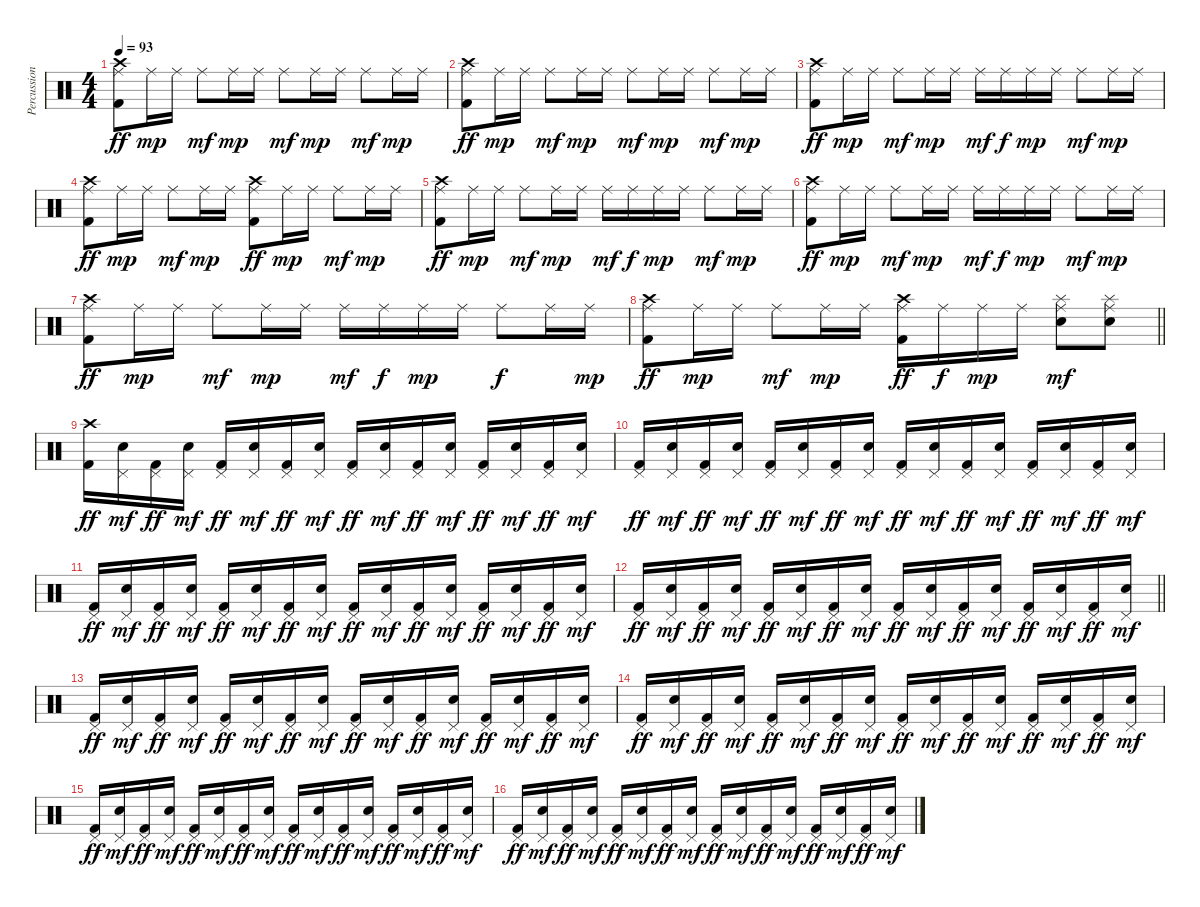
\track ("Percussion" "Percussion") {instrument percussion}
\staff {score}
\articulation defaults
\ts (4 4)
\tempo 93
\clef neutral
\ks c
("Crash high (hit)" "Ride (middle)" "Kick (hit) 2").8{dy ff} "Ride (middle)".16{dy mp} "Ride (middle)".16 "Ride (middle)".8{dy mf} "Ride (middle)".16{dy mp} "Ride (middle)".16 "Ride (middle)".8{dy mf} "Ride (middle)".16{dy mp} "Ride (middle)".16 "Ride (middle)".8{dy mf} "Ride (middle)".16{dy mp} "Ride (middle)".16 |
("Crash high (hit)" "Ride (middle)" "Kick (hit) 2").8{dy ff} "Ride (middle)".16{dy mp} "Ride (middle)".16 "Ride (middle)".8{dy mf} "Ride (middle)".16{dy mp} "Ride (middle)".16 "Ride (middle)".8{dy mf} "Ride (middle)".16{dy mp} "Ride (middle)".16 "Ride (middle)".8{dy mf} "Ride (middle)".16{dy mp} "Ride (middle)".16 |
("Crash high (hit)" "Ride (middle)" "Kick (hit) 2").8{dy ff} "Ride (middle)".16{dy mp} "Ride (middle)".16 "Ride (middle)".8{dy mf} "Ride (middle)".16{dy mp} "Ride (middle)".16 "Ride (middle)".16{dy mf} "Ride (middle)".16{dy f} "Ride (middle)".16{dy mp} "Ride (middle)".16 "Ride (middle)".8{dy mf} "Ride (middle)".16{dy mp} "Ride (middle)".16 |
("Crash high (hit)" "Ride (middle)" "Kick (hit) 2").8{dy ff} "Ride (middle)".16{dy mp} "Ride (middle)".16 "Ride (middle)".8{dy mf} "Ride (middle)".16{dy mp} "Ride (middle)".16 ("Crash high (hit)" "Ride (middle)" "Kick (hit) 2").8{dy ff} "Ride (middle)".16{dy mp} "Ride (middle)".16 "Ride (middle)".8{dy mf} "Ride (middle)".16{dy mp} "Ride (middle)".16 |
("Crash high (hit)" "Ride (middle)" "Kick (hit) 2").8{dy ff} "Ride (middle)".16{dy mp} "Ride (middle)".16 "Ride (middle)".8{dy mf} "Ride (middle)".16{dy mp} "Ride (middle)".16 "Ride (middle)".16{dy mf} "Ride (middle)".16{dy f} "Ride (middle)".16{dy mp} "Ride (middle)".16 "Ride (middle)".8{dy mf} "Ride (middle)".16{dy mp} "Ride (middle)".16 |
("Crash high (hit)" "Ride (middle)" "Kick (hit) 2").8{dy ff} "Ride (middle)".16{dy mp} "Ride (middle)".16 "Ride (middle)".8{dy mf} "Ride (middle)".16{dy mp} "Ride (middle)".16 "Ride (middle)".16{dy mf} "Ride (middle)".16{dy f} "Ride (middle)".16{dy mp} "Ride (middle)".16 "Ride (middle)".8{dy mf} "Ride (middle)".16{dy mp} "Ride (middle)".16 |
("Crash high (hit)" "Ride (middle)" "Kick (hit) 2").8{dy ff} "Ride (middle)".16{dy mp} "Ride (middle)".16 "Ride (middle)".8{dy mf} "Ride (middle)".16{dy mp} "Ride (middle)".16 "Ride (middle)".16{dy mf} "Ride (middle)".16{dy f} "Ride (middle)".16{dy mp} "Ride (middle)".16 "Ride (middle)".8{dy f} "Ride (middle)".16 "Ride (middle)".16{dy mp} |
\barLineRight lightlight
("Crash high (hit)" "Ride (middle)" "Kick (hit) 2").8{dy ff} "Ride (middle)".16{dy mp} "Ride (middle)".16 "Ride (middle)".8{dy mf} "Ride (middle)".16{dy mp} "Ride (middle)".16 ("Crash high (hit)" "Ride (middle)" "Kick (hit) 2").16{dy ff} "Ride (middle)".16{dy f} "Ride (middle)".16{dy mp} "Ride (middle)".16 ("Splash (hit)" "Ride (middle)" "Electric Snare (hit)").8{dy mf} ("Splash (hit)" "Ride (middle)" "Electric Snare (hit)").8 |
("Crash high (hit)" "Kick (hit) 2").16{dy ff} ("Pedal Hi-Hat (hit)" "Electric Snare (hit)").16{dy mf} ("Pedal Hi-Hat (hit)" "Kick (hit) 2").16{dy ff} ("Pedal Hi-Hat (hit)" "Electric Snare (hit)").16{dy mf} ("Pedal Hi-Hat (hit)" "Kick (hit) 2").16{dy ff} ("Pedal Hi-Hat (hit)" "Electric Snare (hit)").16{dy mf} ("Pedal Hi-Hat (hit)" "Kick (hit) 2").16{dy ff} ("Pedal Hi-Hat (hit)" "Electric Snare (hit)").16{dy mf} ("Pedal Hi-Hat (hit)" "Kick (hit) 2").16{dy ff} ("Pedal Hi-Hat (hit)" "Electric Snare (hit)").16{dy mf} ("Pedal Hi-Hat (hit)" "Kick (hit) 2").16{dy ff} ("Pedal Hi-Hat (hit)" "Electric Snare (hit)").16{dy mf} ("Pedal Hi-Hat (hit)" "Kick (hit) 2").16{dy ff} ("Pedal Hi-Hat (hit)" "Electric Snare (hit)").16{dy mf} ("Pedal Hi-Hat (hit)" "Kick (hit) 2").16{dy ff} ("Pedal Hi-Hat (hit)" "Electric Snare (hit)").16{dy mf} |
("Pedal Hi-Hat (hit)" "Kick (hit) 2").16{dy ff} ("Pedal Hi-Hat (hit)" "Electric Snare (hit)").16{dy mf} ("Pedal Hi-Hat (hit)" "Kick (hit) 2").16{dy ff} ("Pedal Hi-Hat (hit)" "Electric Snare (hit)").16{dy mf} ("Pedal Hi-Hat (hit)" "Kick (hit) 2").16{dy ff} ("Pedal Hi-Hat (hit)" "Electric Snare (hit)").16{dy mf} ("Pedal Hi-Hat (hit)" "Kick (hit) 2").16{dy ff} ("Pedal Hi-Hat (hit)" "Electric Snare (hit)").16{dy mf} ("Pedal Hi-Hat (hit)" "Kick (hit) 2").16{dy ff} ("Pedal Hi-Hat (hit)" "Electric Snare (hit)").16{dy mf} ("Pedal Hi-Hat (hit)" "Kick (hit) 2").16{dy ff} ("Pedal Hi-Hat (hit)" "Electric Snare (hit)").16{dy mf} ("Pedal Hi-Hat (hit)" "Kick (hit) 2").16{dy ff} ("Pedal Hi-Hat (hit)" "Electric Snare (hit)").16{dy mf} ("Pedal Hi-Hat (hit)" "Kick (hit) 2").16{dy ff} ("Pedal Hi-Hat (hit)" "Electric Snare (hit)").16{dy mf} |
("Pedal Hi-Hat (hit)" "Kick (hit) 2").16{dy ff} ("Pedal Hi-Hat (hit)" "Electric Snare (hit)").16{dy mf} ("Pedal Hi-Hat (hit)" "Kick (hit) 2").16{dy ff} ("Pedal Hi-Hat (hit)" "Electric Snare (hit)").16{dy mf} ("Pedal Hi-Hat (hit)" "Kick (hit) 2").16{dy ff} ("Pedal Hi-Hat (hit)" "Electric Snare (hit)").16{dy mf} ("Pedal Hi-Hat (hit)" "Kick (hit) 2").16{dy ff} ("Pedal Hi-Hat (hit)" "Electric Snare (hit)").16{dy mf} ("Pedal Hi-Hat (hit)" "Kick (hit) 2").16{dy ff} ("Pedal Hi-Hat (hit)" "Electric Snare (hit)").16{dy mf} ("Pedal Hi-Hat (hit)" "Kick (hit) 2").16{dy ff} ("Pedal Hi-Hat (hit)" "Electric Snare (hit)").16{dy mf} ("Pedal Hi-Hat (hit)" "Kick (hit) 2").16{dy ff} ("Pedal Hi-Hat (hit)" "Electric Snare (hit)").16{dy mf} ("Pedal Hi-Hat (hit)" "Kick (hit) 2").16{dy ff} ("Pedal Hi-Hat (hit)" "Electric Snare (hit)").16{dy mf} |
\barLineRight lightlight
("Pedal Hi-Hat (hit)" "Kick (hit) 2").16{dy ff} ("Pedal Hi-Hat (hit)" "Electric Snare (hit)").16{dy mf} ("Pedal Hi-Hat (hit)" "Kick (hit) 2").16{dy ff} ("Pedal Hi-Hat (hit)" "Electric Snare (hit)").16{dy mf} ("Pedal Hi-Hat (hit)" "Kick (hit) 2").16{dy ff} ("Pedal Hi-Hat (hit)" "Electric Snare (hit)").16{dy mf} ("Pedal Hi-Hat (hit)" "Kick (hit) 2").16{dy ff} ("Pedal Hi-Hat (hit)" "Electric Snare (hit)").16{dy mf} ("Pedal Hi-Hat (hit)" "Kick (hit) 2").16{dy ff} ("Pedal Hi-Hat (hit)" "Electric Snare (hit)").16{dy mf} ("Pedal Hi-Hat (hit)" "Kick (hit) 2").16{dy ff} ("Pedal Hi-Hat (hit)" "Electric Snare (hit)").16{dy mf} ("Pedal Hi-Hat (hit)" "Kick (hit) 2").16{dy ff} ("Pedal Hi-Hat (hit)" "Electric Snare (hit)").16{dy mf} ("Pedal Hi-Hat (hit)" "Kick (hit) 2").16{dy ff} ("Pedal Hi-Hat (hit)" "Electric Snare (hit)").16{dy mf} |
("Pedal Hi-Hat (hit)" "Kick (hit) 2").16{dy ff} ("Pedal Hi-Hat (hit)" "Electric Snare (hit)").16{dy mf} ("Pedal Hi-Hat (hit)" "Kick (hit) 2").16{dy ff} ("Pedal Hi-Hat (hit)" "Electric Snare (hit)").16{dy mf} ("Pedal Hi-Hat (hit)" "Kick (hit) 2").16{dy ff} ("Pedal Hi-Hat (hit)" "Electric Snare (hit)").16{dy mf} ("Pedal Hi-Hat (hit)" "Kick (hit) 2").16{dy ff} ("Pedal Hi-Hat (hit)" "Electric Snare (hit)").16{dy mf} ("Pedal Hi-Hat (hit)" "Kick (hit) 2").16{dy ff} ("Pedal Hi-Hat (hit)" "Electric Snare (hit)").16{dy mf} ("Pedal Hi-Hat (hit)" "Kick (hit) 2").16{dy ff} ("Pedal Hi-Hat (hit)" "Electric Snare (hit)").16{dy mf} ("Pedal Hi-Hat (hit)" "Kick (hit) 2").16{dy ff} ("Pedal Hi-Hat (hit)" "Electric Snare (hit)").16{dy mf} ("Pedal Hi-Hat (hit)" "Kick (hit) 2").16{dy ff} ("Pedal Hi-Hat (hit)" "Electric Snare (hit)").16{dy mf} |
("Pedal Hi-Hat (hit)" "Kick (hit) 2").16{dy ff} ("Pedal Hi-Hat (hit)" "Electric Snare (hit)").16{dy mf} ("Pedal Hi-Hat (hit)" "Kick (hit) 2").16{dy ff} ("Pedal Hi-Hat (hit)" "Electric Snare (hit)").16{dy mf} ("Pedal Hi-Hat (hit)" "Kick (hit) 2").16{dy ff} ("Pedal Hi-Hat (hit)" "Electric Snare (hit)").16{dy mf} ("Pedal Hi-Hat (hit)" "Kick (hit) 2").16{dy ff} ("Pedal Hi-Hat (hit)" "Electric Snare (hit)").16{dy mf} ("Pedal Hi-Hat (hit)" "Kick (hit) 2").16{dy ff} ("Pedal Hi-Hat (hit)" "Electric Snare (hit)").16{dy mf} ("Pedal Hi-Hat (hit)" "Kick (hit) 2").16{dy ff} ("Pedal Hi-Hat (hit)" "Electric Snare (hit)").16{dy mf} ("Pedal Hi-Hat (hit)" "Kick (hit) 2").16{dy ff} ("Pedal Hi-Hat (hit)" "Electric Snare (hit)").16{dy mf} ("Pedal Hi-Hat (hit)" "Kick (hit) 2").16{dy ff} ("Pedal Hi-Hat (hit)" "Electric Snare (hit)").16{dy mf} |
("Pedal Hi-Hat (hit)" "Kick (hit) 2").16{dy ff} ("Pedal Hi-Hat (hit)" "Electric Snare (hit)").16{dy mf} ("Pedal Hi-Hat (hit)" "Kick (hit) 2").16{dy ff} ("Pedal Hi-Hat (hit)" "Electric Snare (hit)").16{dy mf} ("Pedal Hi-Hat (hit)" "Kick (hit) 2").16{dy ff} ("Pedal Hi-Hat (hit)" "Electric Snare (hit)").16{dy mf} ("Pedal Hi-Hat (hit)" "Kick (hit) 2").16{dy ff} ("Pedal Hi-Hat (hit)" "Electric Snare (hit)").16{dy mf} ("Pedal Hi-Hat (hit)" "Kick (hit) 2").16{dy ff} ("Pedal Hi-Hat (hit)" "Electric Snare (hit)").16{dy mf} ("Pedal Hi-Hat (hit)" "Kick (hit) 2").16{dy ff} ("Pedal Hi-Hat (hit)" "Electric Snare (hit)").16{dy mf} ("Pedal Hi-Hat (hit)" "Kick (hit) 2").16{dy ff} ("Pedal Hi-Hat (hit)" "Electric Snare (hit)").16{dy mf} ("Pedal Hi-Hat (hit)" "Kick (hit) 2").16{dy ff} ("Pedal Hi-Hat (hit)" "Electric Snare (hit)").16{dy mf} |
("Pedal Hi-Hat (hit)" "Kick (hit) 2").16{dy ff} ("Pedal Hi-Hat (hit)" "Electric Snare (hit)").16{dy mf} ("Pedal Hi-Hat (hit)" "Kick (hit) 2").16{dy ff} ("Pedal Hi-Hat (hit)" "Electric Snare (hit)").16{dy mf} ("Pedal Hi-Hat (hit)" "Kick (hit) 2").16{dy ff} ("Pedal Hi-Hat (hit)" "Electric Snare (hit)").16{dy mf} ("Pedal Hi-Hat (hit)" "Kick (hit) 2").16{dy ff} ("Pedal Hi-Hat (hit)" "Electric Snare (hit)").16{dy mf} ("Pedal Hi-Hat (hit)" "Kick (hit) 2").16{dy ff} ("Pedal Hi-Hat (hit)" "Electric Snare (hit)").16{dy mf} ("Pedal Hi-Hat (hit)" "Kick (hit) 2").16{dy ff} ("Pedal Hi-Hat (hit)" "Electric Snare (hit)").16{dy mf} ("Pedal Hi-Hat (hit)" "Kick (hit) 2").16{dy ff} ("Pedal Hi-Hat (hit)" "Electric Snare (hit)").16{dy mf} ("Pedal Hi-Hat (hit)" "Kick (hit) 2").16{dy ff} ("Pedal Hi-Hat (hit)" "Electric Snare (hit)").16{dy mf}
